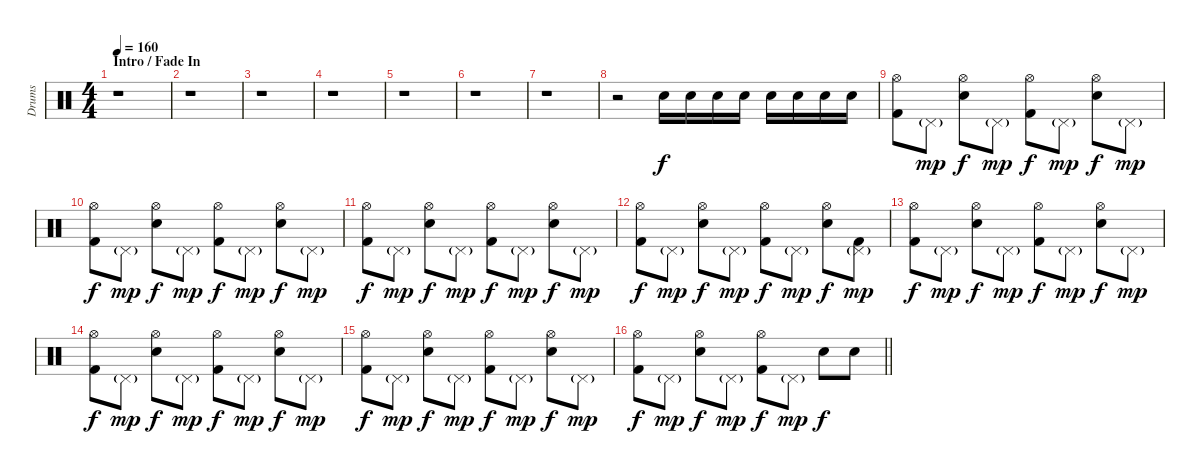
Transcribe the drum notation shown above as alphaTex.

\track ("Drums" "Drums") {instrument percussion}
\staff {score}
\articulation defaults
\ts (4 4)
\section ("" "Intro / Fade In")
\tempo 160
\clef neutral
\ks aminor
r.1{dy f} |
r.1 |
r.1 |
r.1 |
r.1 |
r.1 |
r.1 |
r.2{volume 0} "Electric Snare (hit)".16{volume 13} "Electric Snare (hit)".16 "Electric Snare (hit)".16 "Snare (hit) 2".16 "Electric Snare (hit)".16 "Electric Snare (hit)".16 "Electric Snare (hit)".16 "Snare (hit) 2".16 |
("Hi-Hat (open)" "Kick (hit) 2").8 "Pedal Hi-Hat (hit)"{g}.8{dy mp} ("Hi-Hat (open)" "Electric Snare (hit)").8{dy f} "Pedal Hi-Hat (hit)"{g}.8{dy mp} ("Hi-Hat (open)" "Kick (hit) 2").8{dy f} "Pedal Hi-Hat (hit)"{g}.8{dy mp} ("Hi-Hat (open)" "Electric Snare (hit)").8{dy f} "Pedal Hi-Hat (hit)"{g}.8{dy mp} |
("Hi-Hat (open)" "Kick (hit) 2").8{dy f} "Pedal Hi-Hat (hit)"{g}.8{dy mp} ("Hi-Hat (open)" "Electric Snare (hit)").8{dy f} "Pedal Hi-Hat (hit)"{g}.8{dy mp} ("Hi-Hat (open)" "Kick (hit) 2").8{dy f} "Pedal Hi-Hat (hit)"{g}.8{dy mp} ("Hi-Hat (open)" "Electric Snare (hit)").8{dy f} "Pedal Hi-Hat (hit)"{g}.8{dy mp} |
("Hi-Hat (open)" "Kick (hit) 2").8{dy f} "Pedal Hi-Hat (hit)"{g}.8{dy mp} ("Hi-Hat (open)" "Electric Snare (hit)").8{dy f} "Pedal Hi-Hat (hit)"{g}.8{dy mp} ("Hi-Hat (open)" "Kick (hit) 2").8{dy f} "Pedal Hi-Hat (hit)"{g}.8{dy mp} ("Hi-Hat (open)" "Electric Snare (hit)").8{dy f} "Pedal Hi-Hat (hit)"{g}.8{dy mp} |
("Hi-Hat (open)" "Kick (hit) 2").8{dy f} "Pedal Hi-Hat (hit)"{g}.8{dy mp} ("Hi-Hat (open)" "Electric Snare (hit)").8{dy f} "Pedal Hi-Hat (hit)"{g}.8{dy mp} ("Hi-Hat (open)" "Kick (hit) 2").8{dy f} "Pedal Hi-Hat (hit)"{g}.8{dy mp} ("Hi-Hat (open)" "Electric Snare (hit)").8{dy f} ("Pedal Hi-Hat (hit)"{g} "Kick (hit) 2").8{dy mp} |
("Hi-Hat (open)" "Kick (hit) 2").8{dy f} "Pedal Hi-Hat (hit)"{g}.8{dy mp} ("Hi-Hat (open)" "Electric Snare (hit)").8{dy f} "Pedal Hi-Hat (hit)"{g}.8{dy mp} ("Hi-Hat (open)" "Kick (hit) 2").8{dy f} "Pedal Hi-Hat (hit)"{g}.8{dy mp} ("Hi-Hat (open)" "Electric Snare (hit)").8{dy f} "Pedal Hi-Hat (hit)"{g}.8{dy mp} |
("Hi-Hat (open)" "Kick (hit) 2").8{dy f} "Pedal Hi-Hat (hit)"{g}.8{dy mp} ("Hi-Hat (open)" "Electric Snare (hit)").8{dy f} "Pedal Hi-Hat (hit)"{g}.8{dy mp} ("Hi-Hat (open)" "Kick (hit) 2").8{dy f} "Pedal Hi-Hat (hit)"{g}.8{dy mp} ("Hi-Hat (open)" "Electric Snare (hit)").8{dy f} "Pedal Hi-Hat (hit)"{g}.8{dy mp} |
("Hi-Hat (open)" "Kick (hit) 2").8{dy f} "Pedal Hi-Hat (hit)"{g}.8{dy mp} ("Hi-Hat (open)" "Electric Snare (hit)").8{dy f} "Pedal Hi-Hat (hit)"{g}.8{dy mp} ("Hi-Hat (open)" "Kick (hit) 2").8{dy f} "Pedal Hi-Hat (hit)"{g}.8{dy mp} ("Hi-Hat (open)" "Electric Snare (hit)").8{dy f} "Pedal Hi-Hat (hit)"{g}.8{dy mp} |
\barLineRight lightlight
("Hi-Hat (open)" "Kick (hit) 2").8{dy f} "Pedal Hi-Hat (hit)"{g}.8{dy mp} ("Hi-Hat (open)" "Electric Snare (hit)").8{dy f} "Pedal Hi-Hat (hit)"{g}.8{dy mp} ("Hi-Hat (open)" "Kick (hit) 2").8{dy f} "Pedal Hi-Hat (hit)"{g}.8{dy mp} "Electric Snare (hit)".8{dy f} "Electric Snare (hit)".8
